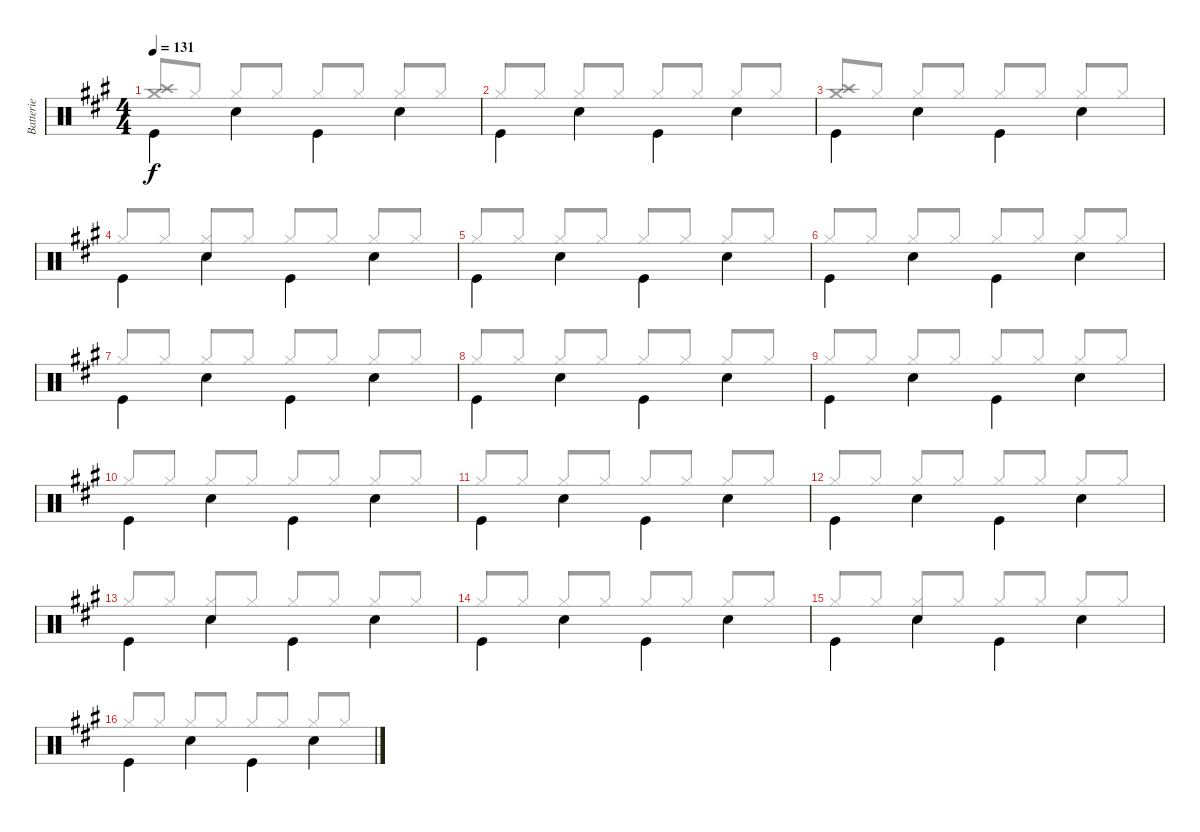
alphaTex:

\track ("Batterie" "Batterie") {instrument percussion}
\staff {score}
\articulation defaults
\voice
\ts (4 4)
\tempo 131
\clef neutral
\ks a "Kick (hit)".4{dy f beam Down} "Snare (hit) 2".4{beam Down} "Kick (hit)".4{beam Down} "Snare (hit) 2".4{beam Down}
|
"Kick (hit)".4{beam Down} "Snare (hit) 2".4{beam Down} "Kick (hit)".4{beam Down} "Snare (hit) 2".4{beam Down} |
"Kick (hit)".4{beam Down} "Snare (hit) 2".4{beam Down} "Kick (hit)".4{beam Down} "Snare (hit) 2".4{beam Down} |
"Kick (hit)".4{beam Down} "Snare (hit) 2".4{beam Down} "Kick (hit)".4{beam Down} "Snare (hit) 2".4{beam Down} |
"Kick (hit)".4{beam Down} "Snare (hit) 2".4{beam Down} "Kick (hit)".4{beam Down} "Snare (hit) 2".4{beam Down} |
"Kick (hit)".4{beam Down} "Snare (hit) 2".4{beam Down} "Kick (hit)".4{beam Down} "Snare (hit) 2".4{beam Down} |
"Kick (hit)".4{beam Down} "Snare (hit) 2".4{beam Down} "Kick (hit)".4{beam Down} "Snare (hit) 2".4{beam Down} |
"Kick (hit)".4{beam Down} "Snare (hit) 2".4{beam Down} "Kick (hit)".4{beam Down} "Snare (hit) 2".4{beam Down} |
"Kick (hit)".4{beam Down} "Snare (hit) 2".4{beam Down} "Kick (hit)".4{beam Down} "Snare (hit) 2".4{beam Down} |
"Kick (hit)".4{beam Down} "Snare (hit) 2".4{beam Down} "Kick (hit)".4{beam Down} "Snare (hit) 2".4{beam Down} |
"Kick (hit)".4{beam Down} "Snare (hit) 2".4{beam Down} "Kick (hit)".4{beam Down} "Snare (hit) 2".4{beam Down} |
"Kick (hit)".4{beam Down} "Snare (hit) 2".4{beam Down} "Kick (hit)".4{beam Down} "Snare (hit) 2".4{beam Down} |
"Kick (hit)".4{beam Down} "Snare (hit) 2".4{beam Down} "Kick (hit)".4{beam Down} "Snare (hit) 2".4{beam Down} |
"Kick (hit)".4{beam Down} "Snare (hit) 2".4{beam Down} "Kick (hit)".4{beam Down} "Snare (hit) 2".4{beam Down} |
"Kick (hit)".4{beam Down} "Snare (hit) 2".4{beam Down} "Kick (hit)".4{beam Down} "Snare (hit) 2".4{beam Down} |
"Kick (hit)".4{beam Down} "Snare (hit) 2".4{beam Down} "Kick (hit)".4{beam Down} "Snare (hit) 2".4{beam Down}
\voice
\clef neutral
\ottava regular
\simile none
\ks a
("Crash medium (hit)" "Crash high (hit)").8{dy f beam Up} "Hi-Hat (closed)".8{beam Up} "Hi-Hat (closed)".8{beam Up} "Hi-Hat (closed)".8{beam Up} "Hi-Hat (closed)".8{beam Up} "Hi-Hat (closed)".8{beam Up} "Hi-Hat (closed)".8{beam Up} "Hi-Hat (closed)".8{beam Up} |
"Hi-Hat (closed)".8{beam Up} "Hi-Hat (closed)".8{beam Up} "Hi-Hat (closed)".8{beam Up} "Hi-Hat (closed)".8{beam Up} "Hi-Hat (closed)".8{beam Up} "Hi-Hat (closed)".8{beam Up} "Hi-Hat (closed)".8{beam Up} "Hi-Hat (closed)".8{beam Up} |
("Crash medium (hit)" "Crash high (hit)").8{beam Up} "Hi-Hat (closed)".8{beam Up} "Hi-Hat (closed)".8{beam Up} "Hi-Hat (closed)".8{beam Up} "Hi-Hat (closed)".8{beam Up} "Hi-Hat (closed)".8{beam Up} "Hi-Hat (closed)".8{beam Up} "Hi-Hat (closed)".8{beam Up} |
"Hi-Hat (closed)".8{beam Up} "Hi-Hat (closed)".8{beam Up} ("Electric Snare (hit)" "Hi-Hat (closed)").8{beam Up} "Hi-Hat (closed)".8{beam Up} "Hi-Hat (closed)".8{beam Up} "Hi-Hat (closed)".8{beam Up} "Hi-Hat (closed)".8{beam Up} "Hi-Hat (closed)".8{beam Up} |
"Hi-Hat (closed)".8{beam Up} "Hi-Hat (closed)".8{beam Up} "Hi-Hat (closed)".8{beam Up} "Hi-Hat (closed)".8{beam Up} "Hi-Hat (closed)".8{beam Up} "Hi-Hat (closed)".8{beam Up} "Hi-Hat (closed)".8{beam Up} "Hi-Hat (closed)".8{beam Up} |
"Hi-Hat (closed)".8{beam Up} "Hi-Hat (closed)".8{beam Up} "Hi-Hat (closed)".8{beam Up} "Hi-Hat (closed)".8{beam Up} "Hi-Hat (closed)".8{beam Up} "Hi-Hat (closed)".8{beam Up} "Hi-Hat (closed)".8{beam Up} "Hi-Hat (closed)".8{beam Up} |
"Hi-Hat (closed)".8{beam Up} "Hi-Hat (closed)".8{beam Up} "Hi-Hat (closed)".8{beam Up} "Hi-Hat (closed)".8{beam Up} "Hi-Hat (closed)".8{beam Up} "Hi-Hat (closed)".8{beam Up} "Hi-Hat (closed)".8{beam Up} "Hi-Hat (closed)".8{beam Up} |
"Hi-Hat (closed)".8{beam Up} "Hi-Hat (closed)".8{beam Up} "Hi-Hat (closed)".8{beam Up} "Hi-Hat (closed)".8{beam Up} "Hi-Hat (closed)".8{beam Up} "Hi-Hat (closed)".8{beam Up} "Hi-Hat (closed)".8{beam Up} "Hi-Hat (closed)".8{beam Up} |
"Hi-Hat (closed)".8{beam Up} "Hi-Hat (closed)".8{beam Up} "Hi-Hat (closed)".8{beam Up} "Hi-Hat (closed)".8{beam Up} "Hi-Hat (closed)".8{beam Up} "Hi-Hat (closed)".8{beam Up} "Hi-Hat (closed)".8{beam Up} "Hi-Hat (closed)".8{beam Up} |
"Hi-Hat (closed)".8{beam Up} "Hi-Hat (closed)".8{beam Up} "Hi-Hat (closed)".8{beam Up} "Hi-Hat (closed)".8{beam Up} "Hi-Hat (closed)".8{beam Up} "Hi-Hat (closed)".8{beam Up} "Hi-Hat (closed)".8{beam Up} "Hi-Hat (closed)".8{beam Up} |
"Hi-Hat (closed)".8{beam Up} "Hi-Hat (closed)".8{beam Up} "Hi-Hat (closed)".8{beam Up} "Hi-Hat (closed)".8{beam Up} "Hi-Hat (closed)".8{beam Up} "Hi-Hat (closed)".8{beam Up} "Hi-Hat (closed)".8{beam Up} "Hi-Hat (closed)".8{beam Up} |
"Hi-Hat (closed)".8{beam Up} "Hi-Hat (closed)".8{beam Up} "Hi-Hat (closed)".8{beam Up} "Hi-Hat (closed)".8{beam Up} "Hi-Hat (closed)".8{beam Up} "Hi-Hat (closed)".8{beam Up} "Hi-Hat (closed)".8{beam Up} "Hi-Hat (closed)".8{beam Up} |
"Hi-Hat (closed)".8{beam Up} "Hi-Hat (closed)".8{beam Up} ("Electric Snare (hit)" "Hi-Hat (closed)").8{beam Up} "Hi-Hat (closed)".8{beam Up} "Hi-Hat (closed)".8{beam Up} "Hi-Hat (closed)".8{beam Up} "Hi-Hat (closed)".8{beam Up} "Hi-Hat (closed)".8{beam Up} |
"Hi-Hat (closed)".8{beam Up} "Hi-Hat (closed)".8{beam Up} "Hi-Hat (closed)".8{beam Up} "Hi-Hat (closed)".8{beam Up} "Hi-Hat (closed)".8{beam Up} "Hi-Hat (closed)".8{beam Up} "Hi-Hat (closed)".8{beam Up} "Hi-Hat (closed)".8{beam Up} |
"Hi-Hat (closed)".8{beam Up} "Hi-Hat (closed)".8{beam Up} ("Electric Snare (hit)" "Hi-Hat (closed)").8{beam Up} "Hi-Hat (closed)".8{beam Up} "Hi-Hat (closed)".8{beam Up} "Hi-Hat (closed)".8{beam Up} "Hi-Hat (closed)".8{beam Up} "Hi-Hat (closed)".8{beam Up} |
"Hi-Hat (closed)".8{beam Up} "Hi-Hat (closed)".8{beam Up} "Hi-Hat (closed)".8{beam Up} "Hi-Hat (closed)".8{beam Up} "Hi-Hat (closed)".8{beam Up} "Hi-Hat (closed)".8{beam Up} "Hi-Hat (closed)".8{beam Up} "Hi-Hat (closed)".8{beam Up}
